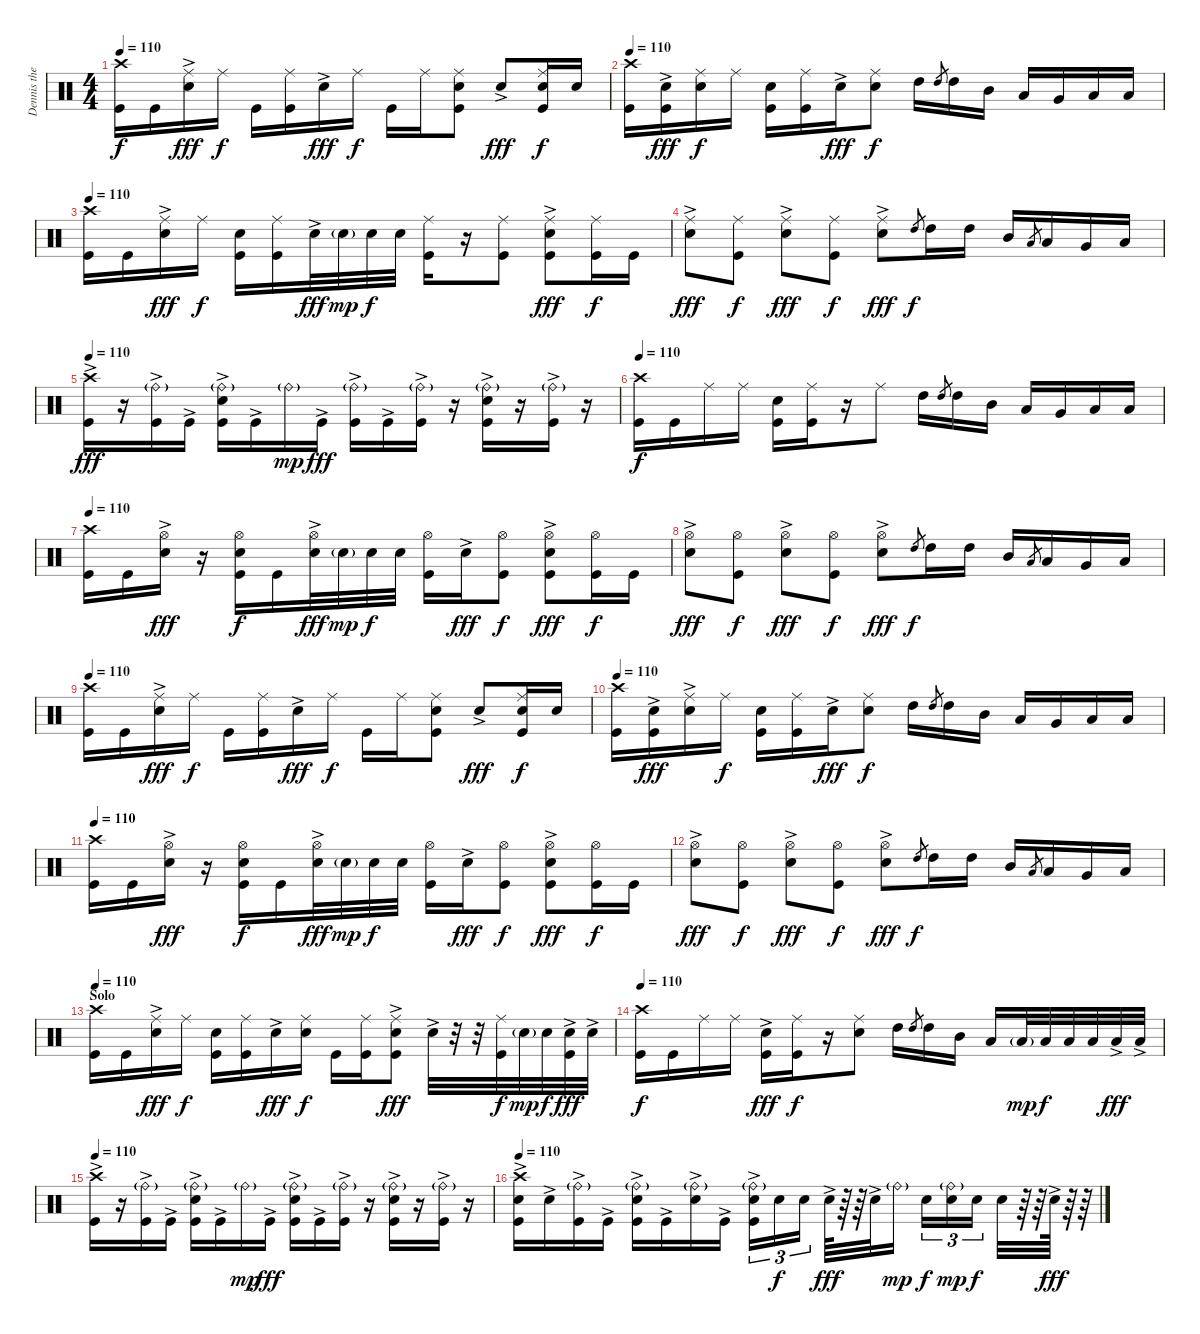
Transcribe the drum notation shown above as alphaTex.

\track ("Dennis the Menace" "Dennis the") {instrument percussion}
\staff {score}
\articulation defaults
\ts (4 4)
\tempo 112
\tempo 110
\clef neutral
\ks c
("Crash high (hit)" "Kick (hit)").16{dy f} "Kick (hit)".16 ("Ride (middle)" "Electric Snare (hit)"{ac}).16{dy fff} "Ride (middle)".16{dy f} "Kick (hit)".16 ("Ride (middle)" "Kick (hit)").16 "Electric Snare (hit)"{ac}.16{dy fff} "Ride (middle)".16{dy f} "Kick (hit)".16 "Ride (middle)".16 ("Ride (middle)" "Electric Snare (hit)" "Kick (hit)").8 "Electric Snare (hit)"{ac}.8{dy fff} ("Ride (middle)" "Electric Snare (hit)" "Kick (hit)").16{dy f} "Electric Snare (hit)".16 |
\tempo 110
("Crash high (hit)" "Kick (hit)").16 ("Electric Snare (hit)"{ac} "Kick (hit)").16{dy fff} ("Ride (middle)" "Electric Snare (hit)").16{dy f} "Ride (middle)".16 ("Electric Snare (hit)" "Kick (hit)").16 ("Ride (middle)" "Kick (hit)").16 "Electric Snare (hit)"{ac}.16{dy fff} ("Ride (middle)" "Electric Snare (hit)").8{dy f} "High Tom (hit)".16 "High Tom (hit)".8{gr} "High Tom (hit)".16 "Mid Tom (hit)".16 "Low Tom (hit)".16 "Very Low Tom (hit)".16 "Low Floor Tom (hit)".16 "Low Floor Tom (hit)".16 |
\tempo 110
("Crash high (hit)" "Kick (hit)").16 "Kick (hit)".16 ("Ride (middle)" "Electric Snare (hit)"{ac}).16{dy fff} "Ride (middle)".16{dy f} ("Electric Snare (hit)" "Kick (hit)").16 ("Ride (middle)" "Kick (hit)").16 "Electric Snare (hit)"{ac}.32{dy fff} "Electric Snare (hit)"{g}.32{dy mp} "Electric Snare (hit)".32{dy f} "Electric Snare (hit)".32 ("Ride (middle)" "Kick (hit)").16 r.16 ("Ride (middle)" "Kick (hit)").8 ("Ride (middle)" "Electric Snare (hit)"{ac} "Kick (hit)").8{dy fff} ("Ride (middle)" "Kick (hit)").16{dy f} "Kick (hit)".16 |
("Ride (middle)" "Electric Snare (hit)"{ac}).8{dy fff} ("Ride (middle)" "Kick (hit)").8{dy f} ("Ride (middle)" "Electric Snare (hit)"{ac}).8{dy fff} ("Ride (middle)" "Kick (hit)").8{dy f} ("Ride (middle)" "Electric Snare (hit)"{ac}).8{dy fff} "High Tom (hit)".8{gr dy f} "High Tom (hit)".16 "High Tom (hit)".16 "Mid Tom (hit)".16 "Low Tom (hit)".8{gr} "Low Tom (hit)".16 "Very Low Tom (hit)".16 "Low Floor Tom (hit)".16 |
\tempo 112
\tempo 110
("Crash high (hit)" "Kick (hit)"{ac}).16{dy fff} r.16 ("Ride (bell)"{g} "Kick (hit)"{ac}).16 "Kick (hit)"{ac}.16 ("Ride (bell)"{g} "Electric Snare (hit)"{ac} "Kick (hit)"{ac}).16 "Kick (hit)"{ac}.16 "Ride (bell)"{g}.16{dy mp} "Kick (hit)"{ac}.16{dy fff} ("Ride (bell)"{g} "Kick (hit)"{ac}).16 "Kick (hit)"{ac}.16 ("Ride (bell)"{g} "Kick (hit)"{ac}).16 r.16 ("Ride (bell)"{g} "Electric Snare (hit)"{ac} "Kick (hit)"{ac}).16 r.16 ("Ride (bell)"{g} "Kick (hit)"{ac}).16 r.16 |
\tempo 110
("Crash high (hit)" "Kick (hit)").16{dy f} "Kick (hit)".16 "Ride (middle)".16 "Ride (middle)".16 ("Electric Snare (hit)" "Kick (hit)").16 ("Ride (middle)" "Kick (hit)").16 r.16 "Ride (middle)".8 "High Tom (hit)".16 "High Tom (hit)".8{gr} "High Tom (hit)".16 "Mid Tom (hit)".16 "Low Tom (hit)".16 "Very Low Tom (hit)".16 "Low Floor Tom (hit)".16 "Low Floor Tom (hit)".16 |
\tempo 110
("Crash high (hit)" "Kick (hit)").16 "Kick (hit)".16 ("Hi-Hat (open)" "Electric Snare (hit)"{ac}).16{dy fff} r.16 ("Hi-Hat (open)" "Electric Snare (hit)" "Kick (hit)").16{dy f} "Kick (hit)".16 ("Hi-Hat (open)" "Electric Snare (hit)"{ac}).32{dy fff} "Electric Snare (hit)"{g}.32{dy mp} "Electric Snare (hit)".32{dy f} "Electric Snare (hit)".32 ("Hi-Hat (open)" "Kick (hit)").16 "Electric Snare (hit)"{ac}.16{dy fff} ("Hi-Hat (open)" "Kick (hit)").8{dy f} ("Hi-Hat (open)" "Electric Snare (hit)"{ac} "Kick (hit)").8{dy fff} ("Hi-Hat (open)" "Kick (hit)").16{dy f} "Kick (hit)".16 |
("Hi-Hat (open)" "Electric Snare (hit)"{ac}).8{dy fff} ("Hi-Hat (open)" "Kick (hit)").8{dy f} ("Hi-Hat (open)" "Electric Snare (hit)"{ac}).8{dy fff} ("Hi-Hat (open)" "Kick (hit)").8{dy f} ("Hi-Hat (open)" "Electric Snare (hit)"{ac}).8{dy fff} "High Tom (hit)".8{gr dy f} "High Tom (hit)".16 "High Tom (hit)".16 "Mid Tom (hit)".16 "Low Tom (hit)".8{gr} "Low Tom (hit)".16 "Very Low Tom (hit)".16 "Low Floor Tom (hit)".16 |
\tempo 112
\tempo 110
("Crash high (hit)" "Kick (hit)").16 "Kick (hit)".16 ("Ride (middle)" "Electric Snare (hit)"{ac}).16{dy fff} "Ride (middle)".16{dy f} "Kick (hit)".16 ("Ride (middle)" "Kick (hit)").16 "Electric Snare (hit)"{ac}.16{dy fff} "Ride (middle)".16{dy f} "Kick (hit)".16 "Ride (middle)".16 ("Ride (middle)" "Electric Snare (hit)" "Kick (hit)").8 "Electric Snare (hit)"{ac}.8{dy fff} ("Ride (middle)" "Electric Snare (hit)" "Kick (hit)").16{dy f} "Electric Snare (hit)".16 |
\tempo 110
("Crash high (hit)" "Kick (hit)").16 ("Electric Snare (hit)"{ac} "Kick (hit)").16{dy fff} ("Ride (middle)"{ac} "Electric Snare (hit)").16 "Ride (middle)".16{dy f} ("Electric Snare (hit)" "Kick (hit)").16 ("Ride (middle)" "Kick (hit)").16 "Electric Snare (hit)"{ac}.16{dy fff} ("Ride (middle)" "Electric Snare (hit)").8{dy f} "High Tom (hit)".16 "High Tom (hit)".8{gr} "High Tom (hit)".16 "Mid Tom (hit)".16 "Low Tom (hit)".16 "Very Low Tom (hit)".16 "Low Floor Tom (hit)".16 "Low Floor Tom (hit)".16 |
\tempo 110
("Crash high (hit)" "Kick (hit)").16 "Kick (hit)".16 ("Hi-Hat (open)" "Electric Snare (hit)"{ac}).16{dy fff} r.16 ("Hi-Hat (open)" "Electric Snare (hit)" "Kick (hit)").16{dy f} "Kick (hit)".16 ("Hi-Hat (open)" "Electric Snare (hit)"{ac}).32{dy fff} "Electric Snare (hit)"{g}.32{dy mp} "Electric Snare (hit)".32{dy f} "Electric Snare (hit)".32 ("Hi-Hat (open)" "Kick (hit)").16 "Electric Snare (hit)"{ac}.16{dy fff} ("Hi-Hat (open)" "Kick (hit)").8{dy f} ("Hi-Hat (open)" "Electric Snare (hit)"{ac} "Kick (hit)").8{dy fff} ("Hi-Hat (open)" "Kick (hit)").16{dy f} "Kick (hit)".16 |
("Hi-Hat (open)" "Electric Snare (hit)"{ac}).8{dy fff} ("Hi-Hat (open)" "Kick (hit)").8{dy f} ("Hi-Hat (open)" "Electric Snare (hit)"{ac}).8{dy fff} ("Hi-Hat (open)" "Kick (hit)").8{dy f} ("Hi-Hat (open)" "Electric Snare (hit)"{ac}).8{dy fff} "High Tom (hit)".8{gr dy f} "High Tom (hit)".16 "High Tom (hit)".16 "Mid Tom (hit)".16 "Low Tom (hit)".8{gr} "Low Tom (hit)".16 "Very Low Tom (hit)".16 "Low Floor Tom (hit)".16 |
\section ("" "Solo")
\tempo 110
("Crash high (hit)" "Kick (hit)").16 "Kick (hit)".16 ("Ride (middle)" "Electric Snare (hit)"{ac}).16{dy fff} "Ride (middle)".16{dy f} ("Electric Snare (hit)" "Kick (hit)").16 ("Ride (middle)" "Kick (hit)").16 "Electric Snare (hit)"{ac}.16{dy fff} ("Ride (middle)" "Electric Snare (hit)").16{dy f} "Kick (hit)".16 ("Ride (middle)" "Kick (hit)").16 ("Ride (middle)" "Electric Snare (hit)"{ac} "Kick (hit)").8{dy fff} "Electric Snare (hit)"{ac}.32 r.32 r.32 ("Ride (middle)" "Kick (hit)").32{dy f} "Electric Snare (hit)"{g}.32{dy mp} "Electric Snare (hit)".32{dy f} ("Electric Snare (hit)"{ac} "Kick (hit)").32{dy fff} "Electric Snare (hit)"{ac}.32 |
\tempo 110
("Crash high (hit)" "Kick (hit)").16{dy f} "Kick (hit)".16 "Ride (middle)".16 "Ride (middle)".16 ("Electric Snare (hit)"{ac} "Kick (hit)").16{dy fff} ("Ride (middle)" "Kick (hit)").16{dy f} r.16 ("Ride (middle)" "Electric Snare (hit)").8 "High Tom (hit)".16 "High Tom (hit)".8{gr} "High Tom (hit)".16 "Mid Tom (hit)".16 "Low Tom (hit)".16 "Low Floor Tom (hit)"{g}.32{dy mp} "Low Floor Tom (hit)".32{dy f} "Low Floor Tom (hit)".32 "Low Floor Tom (hit)".32 "Low Floor Tom (hit)"{ac}.32{dy fff} "Low Floor Tom (hit)"{ac}.32 |
\tempo 110
("Crash high (hit)" "Kick (hit)"{ac}).16 r.16 ("Ride (bell)"{g} "Kick (hit)"{ac}).16 "Kick (hit)"{ac}.16 ("Ride (bell)"{g} "Electric Snare (hit)"{ac} "Kick (hit)"{ac}).16 "Kick (hit)"{ac}.16 "Ride (bell)"{g}.16{dy mp} "Kick (hit)"{ac}.16{dy fff} ("Ride (bell)"{g} "Electric Snare (hit)"{ac} "Kick (hit)"{ac}).16 "Kick (hit)"{ac}.16 ("Ride (bell)"{g} "Kick (hit)"{ac}).16 r.16 ("Ride (bell)"{g} "Electric Snare (hit)"{ac} "Kick (hit)"{ac}).16 r.16 ("Ride (bell)"{g} "Kick (hit)"{ac}).16 r.16 |
\tempo 110
("Crash high (hit)" "Electric Snare (hit)"{ac} "Kick (hit)"{ac}).16 "Electric Snare (hit)"{ac}.16 ("Ride (bell)"{g} "Kick (hit)"{ac}).16 "Kick (hit)"{ac}.16 ("Ride (bell)"{g} "Electric Snare (hit)"{ac} "Kick (hit)"{ac}).16 "Kick (hit)"{ac}.16 ("Ride (bell)"{g} "Electric Snare (hit)"{ac}).16 "Kick (hit)"{ac}.16 ("Ride (bell)"{g} "Electric Snare (hit)" "Kick (hit)"{ac}).16{tu (3 2)} "Electric Snare (hit)".16{tu (3 2) dy f} "Electric Snare (hit)".16{tu (3 2)} "Electric Snare (hit)"{ac}.64{dy fff} r.64 r.64 "Electric Snare (hit)"{ac}.32 "Ride (bell)"{g}.16{dy mp} "Electric Snare (hit)".16{tu (3 2) dy f} ("Ride (bell)"{g} "Electric Snare (hit)").16{tu (3 2) dy mp} "Electric Snare (hit)".16{tu (3 2) dy f} "Electric Snare (hit)".32 r.64 r.64 "Electric Snare (hit)"{ac}.64{dy fff} r.64 r.64
